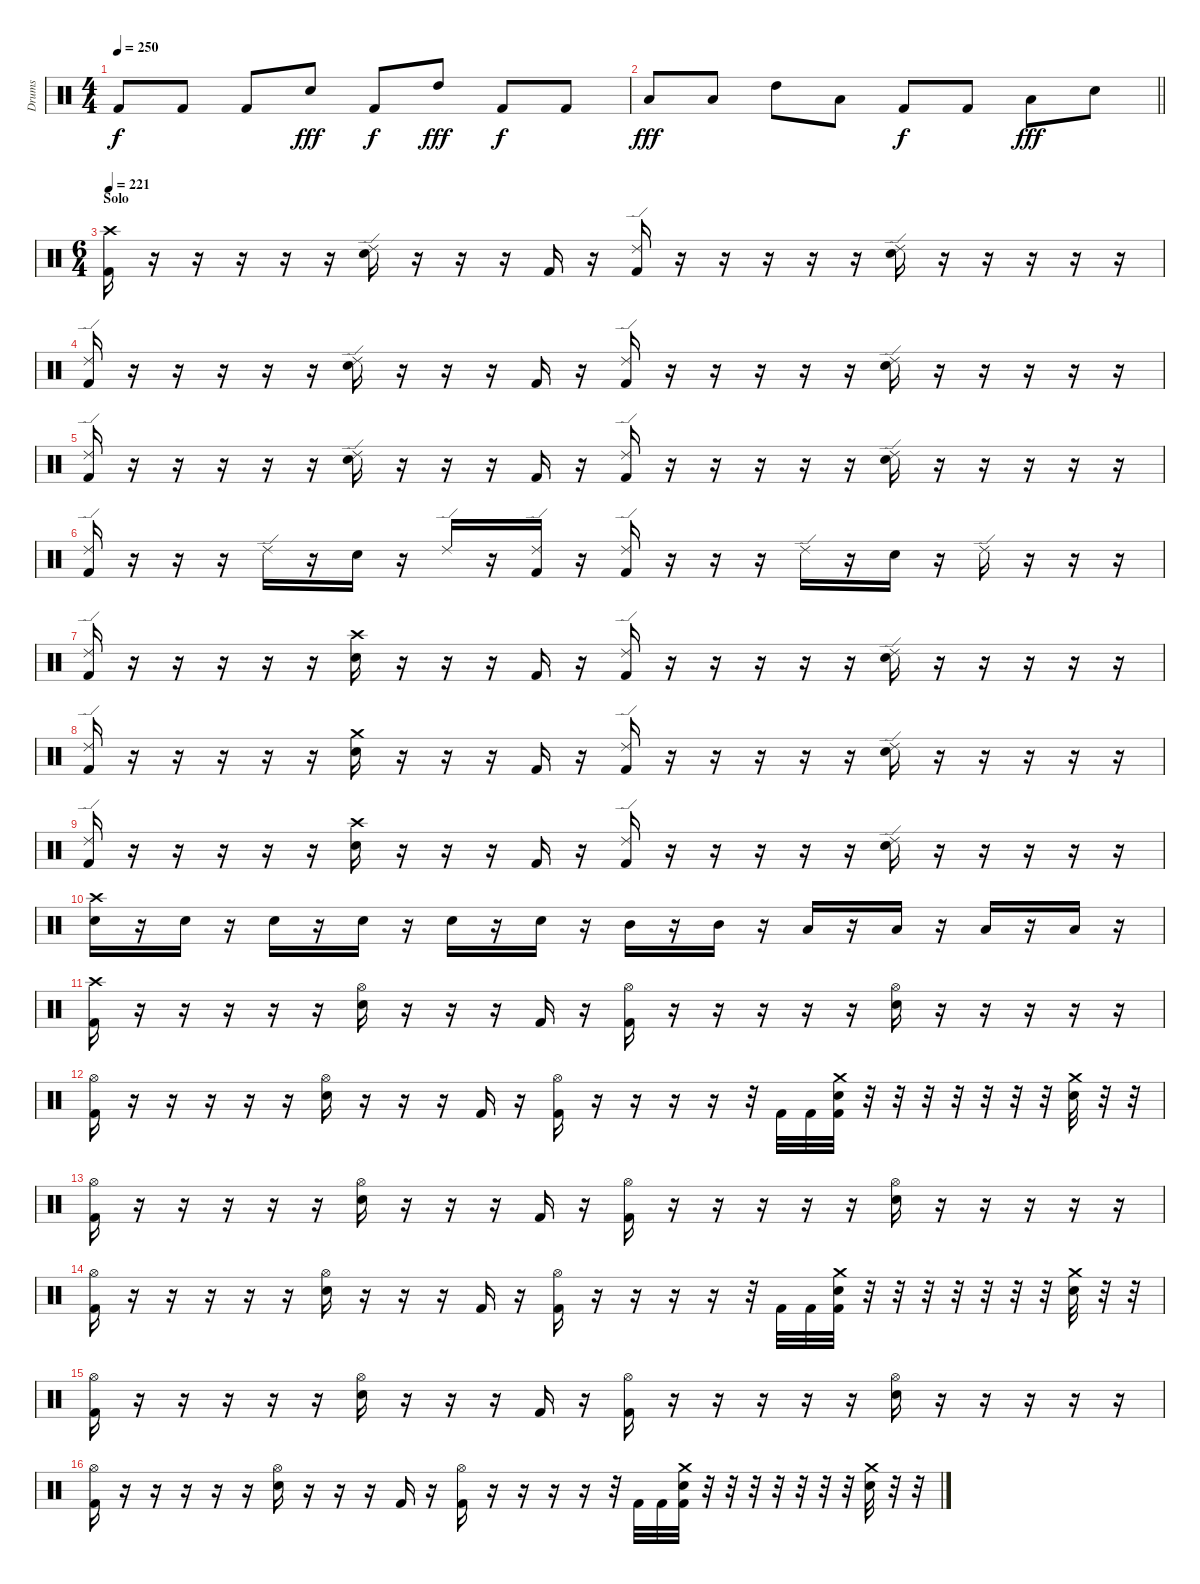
\track ("Drums" "Drums") {instrument percussion}
\staff {score}
\articulation defaults
\ts (4 4)
\tempo 250
\clef neutral
\ks c "Kick (hit) 2".8{dy f} "Kick (hit) 2".8 "Kick (hit) 2".8 "Snare (hit) 2".8{dy fff} "Kick (hit) 2".8{dy f} "High Tom (hit)".8{dy fff} "Kick (hit) 2".8{dy f} "Kick (hit) 2".8
|
\barLineRight lightlight "Low Tom (hit)".8{dy fff} "Low Tom (hit)".8 "High Tom (hit)".8 "Low Tom (hit)".8 "Kick (hit) 2".8{dy f} "Kick (hit) 2".8 "Low Tom (hit)".8{dy fff} "Snare (hit) 2".8
|
\ts (6 4)
\section ("" "Solo")
\tempo 221
("Crash high (hit)" "Kick (hit) 2").16 r.16 r.16 r.16 r.16 r.16 ("Ride (edge) 2" "Snare (hit) 2").16 r.16 r.16 r.16 "Kick (hit) 2".16 r.16 ("Ride (edge) 2" "Kick (hit) 2").16 r.16 r.16 r.16 r.16 r.16 ("Ride (edge) 2" "Snare (hit) 2").16 r.16 r.16 r.16 r.16 r.16 |
("Ride (edge) 2" "Kick (hit) 2").16 r.16 r.16 r.16 r.16 r.16 ("Ride (edge) 2" "Snare (hit) 2").16 r.16 r.16 r.16 "Kick (hit) 2".16 r.16 ("Ride (edge) 2" "Kick (hit) 2").16 r.16 r.16 r.16 r.16 r.16 ("Ride (edge) 2" "Snare (hit) 2").16 r.16 r.16 r.16 r.16 r.16 |
("Ride (edge) 2" "Kick (hit) 2").16 r.16 r.16 r.16 r.16 r.16 ("Ride (edge) 2" "Snare (hit) 2").16 r.16 r.16 r.16 "Kick (hit) 2".16 r.16 ("Ride (edge) 2" "Kick (hit) 2").16 r.16 r.16 r.16 r.16 r.16 ("Ride (edge) 2" "Snare (hit) 2").16 r.16 r.16 r.16 r.16 r.16 |
("Ride (edge) 2" "Kick (hit) 2").16 r.16 r.16 r.16 "Ride (edge) 2".16 r.16 "Snare (hit) 2".16 r.16 "Ride (edge) 2".16 r.16 ("Ride (edge) 2" "Kick (hit) 2").16 r.16 ("Ride (edge) 2" "Kick (hit) 2").16 r.16 r.16 r.16 "Ride (edge) 2".16 r.16 "Snare (hit) 2".16 r.16 "Ride (edge) 2".16 r.16 r.16 r.16 |
("Ride (edge) 2" "Kick (hit) 2").16 r.16 r.16 r.16 r.16 r.16 ("Crash high (hit)" "Snare (hit) 2").16 r.16 r.16 r.16 "Kick (hit) 2".16 r.16 ("Ride (edge) 2" "Kick (hit) 2").16 r.16 r.16 r.16 r.16 r.16 ("Ride (edge) 2" "Snare (hit) 2").16 r.16 r.16 r.16 r.16 r.16 |
("Ride (edge) 2" "Kick (hit) 2").16 r.16 r.16 r.16 r.16 r.16 ("Crash medium (hit)" "Snare (hit) 2").16 r.16 r.16 r.16 "Kick (hit) 2".16 r.16 ("Ride (edge) 2" "Kick (hit) 2").16 r.16 r.16 r.16 r.16 r.16 ("Ride (edge) 2" "Snare (hit) 2").16 r.16 r.16 r.16 r.16 r.16 |
("Ride (edge) 2" "Kick (hit) 2").16 r.16 r.16 r.16 r.16 r.16 ("Crash high (hit)" "Snare (hit) 2").16 r.16 r.16 r.16 "Kick (hit) 2".16 r.16 ("Ride (edge) 2" "Kick (hit) 2").16 r.16 r.16 r.16 r.16 r.16 ("Ride (edge) 2" "Snare (hit) 2").16 r.16 r.16 r.16 r.16 r.16 |
("Crash high (hit)" "Snare (hit) 2").16 r.16 "Snare (hit) 2".16 r.16 "Snare (hit) 2".16 r.16 "Snare (hit) 2".16 r.16 "Snare (hit) 2".16 r.16 "Snare (hit) 2".16 r.16 "Mid Tom (hit)".16 r.16 "Mid Tom (hit)".16 r.16 "Low Tom (hit)".16 r.16 "Low Tom (hit)".16 r.16 "Low Tom (hit)".16 r.16 "Low Tom (hit)".16 r.16 |
("Crash high (hit)" "Kick (hit) 2").16 r.16 r.16 r.16 r.16 r.16 ("Hi-Hat (open)" "Snare (hit) 2").16 r.16 r.16 r.16 "Kick (hit) 2".16 r.16 ("Hi-Hat (open)" "Kick (hit) 2").16 r.16 r.16 r.16 r.16 r.16 ("Hi-Hat (open)" "Snare (hit) 2").16 r.16 r.16 r.16 r.16 r.16 |
("Hi-Hat (open)" "Kick (hit) 2").16 r.16 r.16 r.16 r.16 r.16 ("Hi-Hat (open)" "Snare (hit) 2").16 r.16 r.16 r.16 "Kick (hit) 2".16 r.16 ("Hi-Hat (open)" "Kick (hit) 2").16 r.16 r.16 r.16 r.16 r.32 "Kick (hit) 2".32 "Kick (hit) 2".32 ("Crash medium (hit)" "Snare (hit) 2" "Kick (hit) 2").32 r.32 r.32 r.32 r.32 r.32 r.32 r.32 ("Crash medium (hit)" "Snare (hit) 2").32 r.32 r.32 |
("Hi-Hat (open)" "Kick (hit) 2").16 r.16 r.16 r.16 r.16 r.16 ("Hi-Hat (open)" "Snare (hit) 2").16 r.16 r.16 r.16 "Kick (hit) 2".16 r.16 ("Hi-Hat (open)" "Kick (hit) 2").16 r.16 r.16 r.16 r.16 r.16 ("Hi-Hat (open)" "Snare (hit) 2").16 r.16 r.16 r.16 r.16 r.16 |
("Hi-Hat (open)" "Kick (hit) 2").16 r.16 r.16 r.16 r.16 r.16 ("Hi-Hat (open)" "Snare (hit) 2").16 r.16 r.16 r.16 "Kick (hit) 2".16 r.16 ("Hi-Hat (open)" "Kick (hit) 2").16 r.16 r.16 r.16 r.16 r.32 "Kick (hit) 2".32 "Kick (hit) 2".32 ("Crash medium (hit)" "Snare (hit) 2" "Kick (hit) 2").32 r.32 r.32 r.32 r.32 r.32 r.32 r.32 ("Crash medium (hit)" "Snare (hit) 2").32 r.32 r.32 |
("Hi-Hat (open)" "Kick (hit) 2").16 r.16 r.16 r.16 r.16 r.16 ("Hi-Hat (open)" "Snare (hit) 2").16 r.16 r.16 r.16 "Kick (hit) 2".16 r.16 ("Hi-Hat (open)" "Kick (hit) 2").16 r.16 r.16 r.16 r.16 r.16 ("Hi-Hat (open)" "Snare (hit) 2").16 r.16 r.16 r.16 r.16 r.16 |
("Hi-Hat (open)" "Kick (hit) 2").16 r.16 r.16 r.16 r.16 r.16 ("Hi-Hat (open)" "Snare (hit) 2").16 r.16 r.16 r.16 "Kick (hit) 2".16 r.16 ("Hi-Hat (open)" "Kick (hit) 2").16 r.16 r.16 r.16 r.16 r.32 "Kick (hit) 2".32 "Kick (hit) 2".32 ("Crash medium (hit)" "Snare (hit) 2" "Kick (hit) 2").32 r.32 r.32 r.32 r.32 r.32 r.32 r.32 ("Crash medium (hit)" "Snare (hit) 2").32 r.32 r.32
